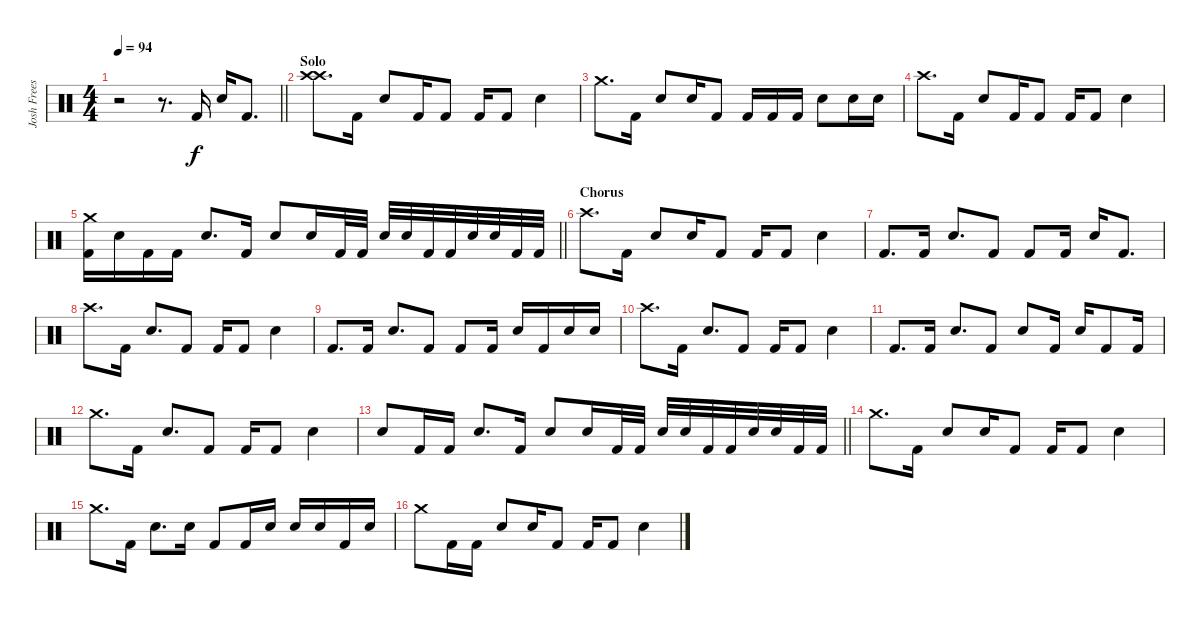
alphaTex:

\track ("Josh Freese (Studio Drummer)" "Josh Frees") {instrument percussion}
\staff {score}
\articulation defaults
\ts (4 4)
\tempo 94
\clef neutral
\barLineRight lightlight
\ks c
r.2{dy f} r.8{d} "Kick (hit) 2".16 "Electric Snare (hit)".16 "Kick (hit) 2".8{d} |
\section ("" "Solo")
("Crash high (hit)" "Crash high (hit)").8{d} "Kick (hit) 2".16 "Electric Snare (hit)".8 "Kick (hit) 2".16 "Kick (hit) 2".8 "Kick (hit) 2".16 "Kick (hit) 2".8 "Electric Snare (hit)".4 |
"Crash medium (hit)".8{d} "Kick (hit) 2".16 "Electric Snare (hit)".8 "Electric Snare (hit)".16 "Kick (hit) 2".8 "Kick (hit) 2".16 "Kick (hit) 2".16 "Kick (hit) 2".16 "Electric Snare (hit)".8 "Electric Snare (hit)".16 "Electric Snare (hit)".16 |
"Crash high (hit)".8{d} "Kick (hit) 2".16 "Electric Snare (hit)".8 "Kick (hit) 2".16 "Kick (hit) 2".8 "Kick (hit) 2".16 "Kick (hit) 2".8 "Electric Snare (hit)".4 |
\barLineRight lightlight
("Crash medium (hit)" "Kick (hit) 2").16 "Electric Snare (hit)".16 "Kick (hit) 2".16 "Kick (hit) 2".16 "Electric Snare (hit)".8{d} "Kick (hit) 2".16 "Electric Snare (hit)".8 "Electric Snare (hit)".16 "Kick (hit) 2".32 "Kick (hit) 2".32 "Electric Snare (hit)".32 "Electric Snare (hit)".32 "Kick (hit) 2".32 "Kick (hit) 2".32 "Electric Snare (hit)".32 "Electric Snare (hit)".32 "Kick (hit) 2".32 "Kick (hit) 2".32 |
\section ("" "Chorus")
"Crash high (hit)".8{d} "Kick (hit) 2".16 "Electric Snare (hit)".8 "Electric Snare (hit)".16 "Kick (hit) 2".8 "Kick (hit) 2".16 "Kick (hit) 2".8 "Electric Snare (hit)".4 |
"Kick (hit) 2".8{d} "Kick (hit) 2".16 "Electric Snare (hit)".8{d} "Kick (hit) 2".8 "Kick (hit) 2".8 "Kick (hit) 2".16 "Electric Snare (hit)".16 "Kick (hit) 2".8{d} |
"Crash high (hit)".8{d} "Kick (hit) 2".16 "Electric Snare (hit)".8{d} "Kick (hit) 2".8 "Kick (hit) 2".16 "Kick (hit) 2".8 "Electric Snare (hit)".4 |
"Kick (hit) 2".8{d} "Kick (hit) 2".16 "Electric Snare (hit)".8{d} "Kick (hit) 2".8 "Kick (hit) 2".8 "Kick (hit) 2".16 "Electric Snare (hit)".16 "Kick (hit) 2".16 "Electric Snare (hit)".16 "Electric Snare (hit)".16 |
"Crash high (hit)".8{d} "Kick (hit) 2".16 "Electric Snare (hit)".8{d} "Kick (hit) 2".8 "Kick (hit) 2".16 "Kick (hit) 2".8 "Electric Snare (hit)".4 |
"Kick (hit) 2".8{d} "Kick (hit) 2".16 "Electric Snare (hit)".8{d} "Kick (hit) 2".8 "Electric Snare (hit)".8 "Kick (hit) 2".16 "Electric Snare (hit)".16 "Kick (hit) 2".8 "Kick (hit) 2".16 |
"Crash medium (hit)".8{d} "Kick (hit) 2".16 "Electric Snare (hit)".8{d} "Kick (hit) 2".8 "Kick (hit) 2".16 "Kick (hit) 2".8 "Electric Snare (hit)".4 |
\barLineRight lightlight "Electric Snare (hit)".8 "Kick (hit) 2".16 "Kick (hit) 2".16 "Electric Snare (hit)".8{d} "Kick (hit) 2".16 "Electric Snare (hit)".8 "Electric Snare (hit)".16 "Kick (hit) 2".32 "Kick (hit) 2".32 "Electric Snare (hit)".32 "Electric Snare (hit)".32 "Kick (hit) 2".32 "Kick (hit) 2".32 "Electric Snare (hit)".32 "Electric Snare (hit)".32 "Kick (hit) 2".32 "Kick (hit) 2".32
|
"Crash medium (hit)".8{d} "Kick (hit) 2".16 "Electric Snare (hit)".8 "Electric Snare (hit)".16 "Kick (hit) 2".8 "Kick (hit) 2".16 "Kick (hit) 2".8 "Electric Snare (hit)".4 |
"Crash medium (hit)".8{d} "Kick (hit) 2".16 "Electric Snare (hit)".8{d} "Electric Snare (hit)".16 "Kick (hit) 2".8 "Kick (hit) 2".16 "Electric Snare (hit)".16 "Electric Snare (hit)".16 "Electric Snare (hit)".16 "Kick (hit) 2".16 "Electric Snare (hit)".16 |
"Crash medium (hit)".8 "Kick (hit) 2".16 "Kick (hit) 2".16 "Electric Snare (hit)".8 "Electric Snare (hit)".16 "Kick (hit) 2".8 "Kick (hit) 2".16 "Kick (hit) 2".8 "Electric Snare (hit)".4
